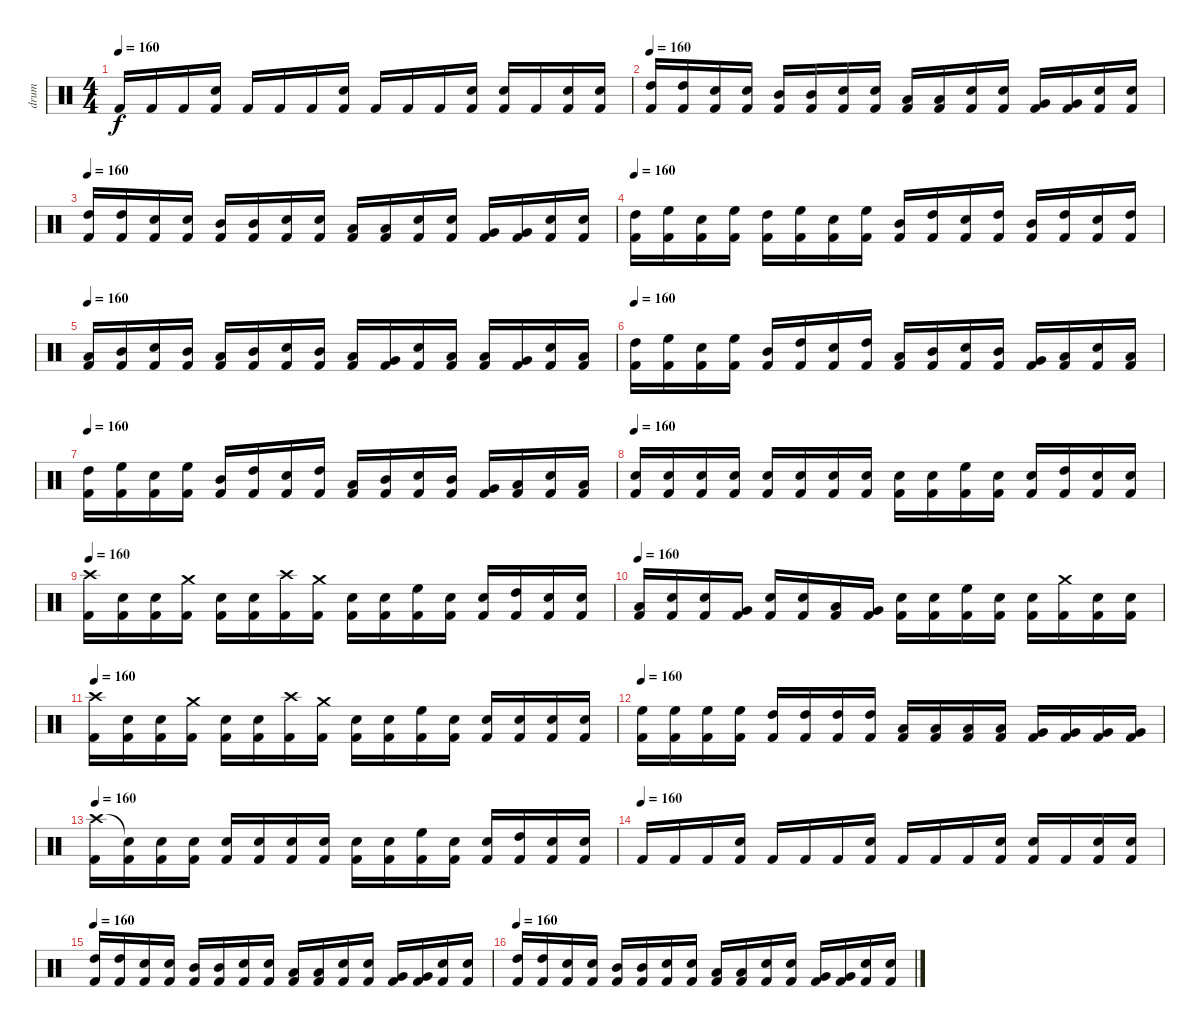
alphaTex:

\track ("drum" "drum") {instrument percussion}
\staff {score}
\articulation defaults
\ts (4 4)
\tempo 160
\clef neutral
\ks c "Kick (hit) 2".16{dy f} "Kick (hit) 2".16 "Kick (hit) 2".16
("Snare (hit) 2" "Kick (hit) 2").16 "Kick (hit) 2".16 "Kick (hit) 2".16 "Kick (hit) 2".16 ("Snare (hit) 2" "Kick (hit) 2").16 "Kick (hit) 2".16 "Kick (hit) 2".16 "Kick (hit) 2".16 ("Snare (hit) 2" "Kick (hit) 2").16 ("Snare (hit) 2" "Kick (hit) 2").16 "Kick (hit) 2".16 ("Snare (hit) 2" "Kick (hit) 2").16 ("Snare (hit) 2" "Kick (hit) 2").16 |
\tempo 160
("High Tom (hit)" "Kick (hit) 2").16 ("High Tom (hit)" "Kick (hit) 2").16 ("Snare (hit) 2" "Kick (hit) 2").16 ("Snare (hit) 2" "Kick (hit) 2").16 ("Mid Tom (hit)" "Kick (hit) 2").16 ("Mid Tom (hit)" "Kick (hit) 2").16 ("Snare (hit) 2" "Kick (hit) 2").16 ("Snare (hit) 2" "Kick (hit) 2").16 ("Low Tom (hit)" "Kick (hit) 2").16 ("Low Tom (hit)" "Kick (hit) 2").16 ("Snare (hit) 2" "Kick (hit) 2").16 ("Snare (hit) 2" "Kick (hit) 2").16 ("Very Low Tom (hit)" "Kick (hit) 2").16 ("Very Low Tom (hit)" "Kick (hit) 2").16 ("Snare (hit) 2" "Kick (hit) 2").16 ("Snare (hit) 2" "Kick (hit) 2").16 |
\tempo 160
("High Tom (hit)" "Kick (hit) 2").16 ("High Tom (hit)" "Kick (hit) 2").16 ("Snare (hit) 2" "Kick (hit) 2").16 ("Snare (hit) 2" "Kick (hit) 2").16 ("Mid Tom (hit)" "Kick (hit) 2").16 ("Mid Tom (hit)" "Kick (hit) 2").16 ("Snare (hit) 2" "Kick (hit) 2").16 ("Snare (hit) 2" "Kick (hit) 2").16 ("Low Tom (hit)" "Kick (hit) 2").16 ("Low Tom (hit)" "Kick (hit) 2").16 ("Snare (hit) 2" "Kick (hit) 2").16 ("Snare (hit) 2" "Kick (hit) 2").16 ("Very Low Tom (hit)" "Kick (hit) 2").16 ("Very Low Tom (hit)" "Kick (hit) 2").16 ("Snare (hit) 2" "Kick (hit) 2").16 ("Snare (hit) 2" "Kick (hit) 2").16 |
\tempo 160
("High Tom (hit)" "Kick (hit) 2").16 ("High Floor Tom (hit)" "Kick (hit) 2").16 ("Snare (hit) 2" "Kick (hit) 2").16 ("High Floor Tom (hit)" "Kick (hit) 2").16 ("High Tom (hit)" "Kick (hit) 2").16 ("High Floor Tom (hit)" "Kick (hit) 2").16 ("Snare (hit) 2" "Kick (hit) 2").16 ("High Floor Tom (hit)" "Kick (hit) 2").16 ("Mid Tom (hit)" "Kick (hit) 2").16 ("High Tom (hit)" "Kick (hit) 2").16 ("Snare (hit) 2" "Kick (hit) 2").16 ("High Tom (hit)" "Kick (hit) 2").16 ("Mid Tom (hit)" "Kick (hit) 2").16 ("High Tom (hit)" "Kick (hit) 2").16 ("Snare (hit) 2" "Kick (hit) 2").16 ("High Tom (hit)" "Kick (hit) 2").16 |
\tempo 160
("Low Tom (hit)" "Kick (hit) 2").16 ("Mid Tom (hit)" "Kick (hit) 2").16 ("Snare (hit) 2" "Kick (hit) 2").16 ("Mid Tom (hit)" "Kick (hit) 2").16 ("Low Tom (hit)" "Kick (hit) 2").16 ("Mid Tom (hit)" "Kick (hit) 2").16 ("Snare (hit) 2" "Kick (hit) 2").16 ("Mid Tom (hit)" "Kick (hit) 2").16 ("Low Tom (hit)" "Kick (hit) 2").16 ("Very Low Tom (hit)" "Kick (hit) 2").16 ("Snare (hit) 2" "Kick (hit) 2").16 ("Low Tom (hit)" "Kick (hit) 2").16 ("Low Tom (hit)" "Kick (hit) 2").16 ("Very Low Tom (hit)" "Kick (hit) 2").16 ("Snare (hit) 2" "Kick (hit) 2").16 ("Low Tom (hit)" "Kick (hit) 2").16 |
\tempo 160
("High Tom (hit)" "Kick (hit) 2").16 ("High Floor Tom (hit)" "Kick (hit) 2").16 ("Snare (hit) 2" "Kick (hit) 2").16 ("High Floor Tom (hit)" "Kick (hit) 2").16 ("Mid Tom (hit)" "Kick (hit) 2").16 ("High Tom (hit)" "Kick (hit) 2").16 ("Snare (hit) 2" "Kick (hit) 2").16 ("High Tom (hit)" "Kick (hit) 2").16 ("Low Tom (hit)" "Kick (hit) 2").16 ("Mid Tom (hit)" "Kick (hit) 2").16 ("Snare (hit) 2" "Kick (hit) 2").16 ("Mid Tom (hit)" "Kick (hit) 2").16 ("Very Low Tom (hit)" "Kick (hit) 2").16 ("Low Tom (hit)" "Kick (hit) 2").16 ("Snare (hit) 2" "Kick (hit) 2").16 ("Low Tom (hit)" "Kick (hit) 2").16 |
\tempo 160
("High Tom (hit)" "Kick (hit) 2").16 ("High Floor Tom (hit)" "Kick (hit) 2").16 ("Snare (hit) 2" "Kick (hit) 2").16 ("High Floor Tom (hit)" "Kick (hit) 2").16 ("Mid Tom (hit)" "Kick (hit) 2").16 ("High Tom (hit)" "Kick (hit) 2").16 ("Snare (hit) 2" "Kick (hit) 2").16 ("High Tom (hit)" "Kick (hit) 2").16 ("Low Tom (hit)" "Kick (hit) 2").16 ("Mid Tom (hit)" "Kick (hit) 2").16 ("Snare (hit) 2" "Kick (hit) 2").16 ("Mid Tom (hit)" "Kick (hit) 2").16 ("Very Low Tom (hit)" "Kick (hit) 2").16 ("Low Tom (hit)" "Kick (hit) 2").16 ("Snare (hit) 2" "Kick (hit) 2").16 ("Low Tom (hit)" "Kick (hit) 2").16 |
\tempo 160
("Snare (hit) 2" "Kick (hit) 2").16 ("Snare (hit) 2" "Kick (hit) 2").16 ("Snare (hit) 2" "Kick (hit) 2").16 ("Snare (hit) 2" "Kick (hit) 2").16 ("Snare (hit) 2" "Kick (hit) 2").16 ("Snare (hit) 2" "Kick (hit) 2").16 ("Snare (hit) 2" "Kick (hit) 2").16 ("Snare (hit) 2" "Kick (hit) 2").16 ("Snare (hit) 2" "Kick (hit) 2").16 ("Snare (hit) 2" "Kick (hit) 2").16 ("High Floor Tom (hit)" "Kick (hit) 2").16 ("Snare (hit) 2" "Kick (hit) 2").16 ("Snare (hit) 2" "Kick (hit) 2").16 ("High Tom (hit)" "Kick (hit) 2").16 ("Snare (hit) 2" "Kick (hit) 2").16 ("Snare (hit) 2" "Kick (hit) 2").16 |
\tempo 160
("Crash high (hit)" "Kick (hit) 2").16 ("Snare (hit) 2" "Kick (hit) 2").16 ("Snare (hit) 2" "Kick (hit) 2").16 ("Crash medium (hit)" "Kick (hit) 2").16 ("Snare (hit) 2" "Kick (hit) 2").16 ("Snare (hit) 2" "Kick (hit) 2").16 ("Crash high (hit)" "Kick (hit) 2").16 ("Crash medium (hit)" "Kick (hit) 2").16 ("Snare (hit) 2" "Kick (hit) 2").16 ("Snare (hit) 2" "Kick (hit) 2").16 ("High Floor Tom (hit)" "Kick (hit) 2").16 ("Snare (hit) 2" "Kick (hit) 2").16 ("Snare (hit) 2" "Kick (hit) 2").16 ("High Tom (hit)" "Kick (hit) 2").16 ("Snare (hit) 2" "Kick (hit) 2").16 ("Snare (hit) 2" "Kick (hit) 2").16 |
\tempo 160
("Low Tom (hit)" "Kick (hit) 2").16 ("Snare (hit) 2" "Kick (hit) 2").16 ("Snare (hit) 2" "Kick (hit) 2").16 ("Very Low Tom (hit)" "Kick (hit) 2").16 ("Snare (hit) 2" "Kick (hit) 2").16 ("Snare (hit) 2" "Kick (hit) 2").16 ("Low Tom (hit)" "Kick (hit) 2").16 ("Very Low Tom (hit)" "Kick (hit) 2").16 ("Snare (hit) 2" "Kick (hit) 2").16 ("Snare (hit) 2" "Kick (hit) 2").16 ("High Floor Tom (hit)" "Kick (hit) 2").16 ("Snare (hit) 2" "Kick (hit) 2").16 ("Snare (hit) 2" "Kick (hit) 2").16 ("Crash medium (hit)" "Kick (hit) 2").16 ("Snare (hit) 2" "Kick (hit) 2").16 ("Snare (hit) 2" "Kick (hit) 2").16 |
\tempo 160
("Crash high (hit)" "Kick (hit) 2").16 ("Snare (hit) 2" "Kick (hit) 2").16 ("Snare (hit) 2" "Kick (hit) 2").16 ("Crash medium (hit)" "Kick (hit) 2").16 ("Snare (hit) 2" "Kick (hit) 2").16 ("Snare (hit) 2" "Kick (hit) 2").16 ("Crash high (hit)" "Kick (hit) 2").16 ("Crash medium (hit)" "Kick (hit) 2").16 ("Snare (hit) 2" "Kick (hit) 2").16 ("Snare (hit) 2" "Kick (hit) 2").16 ("High Floor Tom (hit)" "Kick (hit) 2").16 ("Snare (hit) 2" "Kick (hit) 2").16 ("Snare (hit) 2" "Kick (hit) 2").16 ("Snare (hit) 2" "Kick (hit) 2").16 ("Snare (hit) 2" "Kick (hit) 2").16 ("Snare (hit) 2" "Kick (hit) 2").16 |
\tempo 160
("High Floor Tom (hit)" "Kick (hit) 2").16 ("High Floor Tom (hit)" "Kick (hit) 2").16 ("High Floor Tom (hit)" "Kick (hit) 2").16 ("High Floor Tom (hit)" "Kick (hit) 2").16 ("High Tom (hit)" "Kick (hit) 2").16 ("High Tom (hit)" "Kick (hit) 2").16 ("High Tom (hit)" "Kick (hit) 2").16 ("High Tom (hit)" "Kick (hit) 2").16 ("Low Tom (hit)" "Kick (hit) 2").16 ("Low Tom (hit)" "Kick (hit) 2").16 ("Low Tom (hit)" "Kick (hit) 2").16 ("Low Tom (hit)" "Kick (hit) 2").16 ("Very Low Tom (hit)" "Kick (hit) 2").16 ("Very Low Tom (hit)" "Kick (hit) 2").16 ("Very Low Tom (hit)" "Kick (hit) 2").16 ("Very Low Tom (hit)" "Kick (hit) 2").16 |
\tempo 160
("Crash high (hit)" "Kick (hit) 2").16 ("Snare (hit)"{t} "Kick (hit) 2").16 ("Snare (hit) 2" "Kick (hit) 2").16 ("Snare (hit) 2" "Kick (hit) 2").16 ("Snare (hit) 2" "Kick (hit) 2").16 ("Snare (hit) 2" "Kick (hit) 2").16 ("Snare (hit) 2" "Kick (hit) 2").16 ("Snare (hit) 2" "Kick (hit) 2").16 ("Snare (hit) 2" "Kick (hit) 2").16 ("Snare (hit) 2" "Kick (hit) 2").16 ("High Floor Tom (hit)" "Kick (hit) 2").16 ("Snare (hit) 2" "Kick (hit) 2").16 ("Snare (hit) 2" "Kick (hit) 2").16 ("High Tom (hit)" "Kick (hit) 2").16 ("Snare (hit) 2" "Kick (hit) 2").16 ("Snare (hit) 2" "Kick (hit) 2").16 |
\tempo (160)
"Kick (hit) 2".16 "Kick (hit) 2".16 "Kick (hit) 2".16 ("Snare (hit) 2" "Kick (hit) 2").16 "Kick (hit) 2".16 "Kick (hit) 2".16 "Kick (hit) 2".16 ("Snare (hit) 2" "Kick (hit) 2").16 "Kick (hit) 2".16 "Kick (hit) 2".16 "Kick (hit) 2".16 ("Snare (hit) 2" "Kick (hit) 2").16 ("Snare (hit) 2" "Kick (hit) 2").16 "Kick (hit) 2".16 ("Snare (hit) 2" "Kick (hit) 2").16 ("Snare (hit) 2" "Kick (hit) 2").16 |
\tempo 160
("High Tom (hit)" "Kick (hit) 2").16 ("High Tom (hit)" "Kick (hit) 2").16 ("Snare (hit) 2" "Kick (hit) 2").16 ("Snare (hit) 2" "Kick (hit) 2").16 ("Mid Tom (hit)" "Kick (hit) 2").16 ("Mid Tom (hit)" "Kick (hit) 2").16 ("Snare (hit) 2" "Kick (hit) 2").16 ("Snare (hit) 2" "Kick (hit) 2").16 ("Low Tom (hit)" "Kick (hit) 2").16 ("Low Tom (hit)" "Kick (hit) 2").16 ("Snare (hit) 2" "Kick (hit) 2").16 ("Snare (hit) 2" "Kick (hit) 2").16 ("Very Low Tom (hit)" "Kick (hit) 2").16 ("Very Low Tom (hit)" "Kick (hit) 2").16 ("Snare (hit) 2" "Kick (hit) 2").16 ("Snare (hit) 2" "Kick (hit) 2").16 |
\tempo 160
("High Tom (hit)" "Kick (hit) 2").16 ("High Tom (hit)" "Kick (hit) 2").16 ("Snare (hit) 2" "Kick (hit) 2").16 ("Snare (hit) 2" "Kick (hit) 2").16 ("Mid Tom (hit)" "Kick (hit) 2").16 ("Mid Tom (hit)" "Kick (hit) 2").16 ("Snare (hit) 2" "Kick (hit) 2").16 ("Snare (hit) 2" "Kick (hit) 2").16 ("Low Tom (hit)" "Kick (hit) 2").16 ("Low Tom (hit)" "Kick (hit) 2").16 ("Snare (hit) 2" "Kick (hit) 2").16 ("Snare (hit) 2" "Kick (hit) 2").16 ("Very Low Tom (hit)" "Kick (hit) 2").16 ("Very Low Tom (hit)" "Kick (hit) 2").16 ("Snare (hit) 2" "Kick (hit) 2").16 ("Snare (hit) 2" "Kick (hit) 2").16
